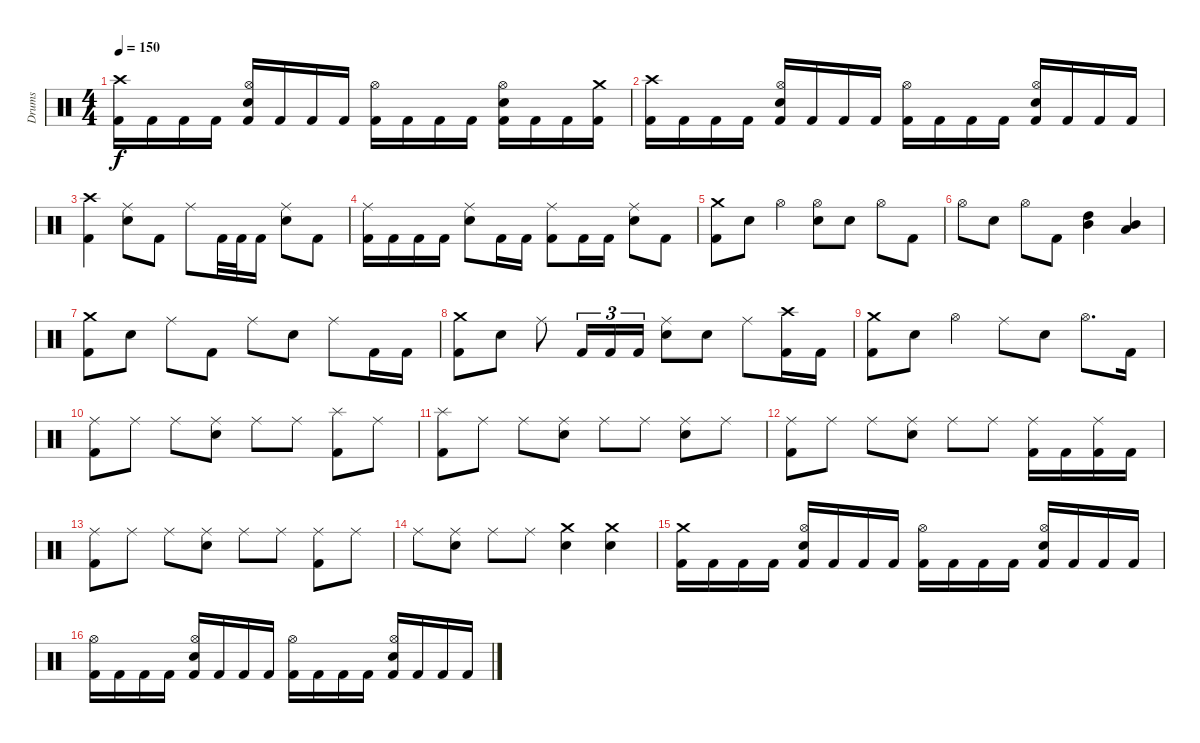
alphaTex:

\track ("Drums" "Drums") {instrument percussion}
\staff {score}
\articulation defaults
\ts (4 4)
\tempo 150
\clef neutral
\ks c
("Crash high (hit)" "Kick (hit) 2").16{dy f} "Kick (hit) 2".16 "Kick (hit) 2".16 "Kick (hit) 2".16 ("Hi-Hat (open)" "Snare (hit) 2" "Kick (hit) 2").16 "Kick (hit) 2".16 "Kick (hit) 2".16 "Kick (hit) 2".16 ("Hi-Hat (open)" "Kick (hit) 2").16 "Kick (hit) 2".16 "Kick (hit) 2".16 "Kick (hit) 2".16 ("Hi-Hat (open)" "Snare (hit) 2" "Kick (hit) 2").16 "Kick (hit) 2".16 "Kick (hit) 2".16 ("Crash medium (hit)" "Kick (hit) 2").16 |
("Crash high (hit)" "Kick (hit) 2").16 "Kick (hit) 2".16 "Kick (hit) 2".16 "Kick (hit) 2".16 ("Hi-Hat (open)" "Snare (hit) 2" "Kick (hit) 2").16 "Kick (hit) 2".16 "Kick (hit) 2".16 "Kick (hit) 2".16 ("Hi-Hat (open)" "Kick (hit) 2").16 "Kick (hit) 2".16 "Kick (hit) 2".16 "Kick (hit) 2".16 ("Hi-Hat (open)" "Snare (hit) 2" "Kick (hit) 2").16 "Kick (hit) 2".16 "Kick (hit) 2".16 "Kick (hit) 2".16 |
("Crash high (hit)" "Kick (hit) 2").4 ("Ride (middle)" "Snare (hit) 2").8 "Kick (hit) 2".8 "Ride (middle)".8 "Kick (hit) 2".32 "Kick (hit) 2".32 "Kick (hit) 2".16 ("Ride (middle)" "Snare (hit) 2").8 "Kick (hit) 2".8 |
("Ride (middle)" "Kick (hit) 2").16 "Kick (hit) 2".16 "Kick (hit) 2".16 "Kick (hit) 2".16 ("Ride (middle)" "Snare (hit) 2").8 "Kick (hit) 2".16 "Kick (hit) 2".16 ("Ride (middle)" "Kick (hit) 2").8 "Kick (hit) 2".16 "Kick (hit) 2".16 ("Ride (middle)" "Snare (hit) 2").8 "Kick (hit) 2".8 |
("Crash medium (hit)" "Kick (hit) 2").8 "Snare (hit) 2".8 "Hi-Hat (open)".4 ("Hi-Hat (open)" "Snare (hit) 2").8 "Snare (hit) 2".8 "Hi-Hat (open)".8 "Kick (hit) 2".8 |
"Hi-Hat (open)".8 "Snare (hit) 2".8 "Hi-Hat (open)".8 "Kick (hit) 2".8 ("High Tom (hit)" "Mid Tom (hit)").4 ("Mid Tom (hit)" "Low Tom (hit)").4 |
("Crash medium (hit)" "Kick (hit) 2").8 "Snare (hit) 2".8 "Ride (middle)".8 "Kick (hit) 2".8 "Ride (middle)".8 "Snare (hit) 2".8 "Ride (middle)".8 "Kick (hit) 2".16 "Kick (hit) 2".16 |
("Crash medium (hit)" "Kick (hit) 2").8 "Snare (hit) 2".8 "Ride (middle)".8 "Kick (hit) 2".16{tu (3 2)} "Kick (hit) 2".16{tu (3 2)} "Kick (hit) 2".16{tu (3 2)} ("Ride (middle)" "Snare (hit) 2").8 "Snare (hit) 2".8 "Ride (middle)".8 ("Crash high (hit)" "Kick (hit) 2").16 "Kick (hit) 2".16 |
("Crash medium (hit)" "Kick (hit) 2").8 "Snare (hit) 2".8 "Hi-Hat (open)".4 "Ride (middle)".8 "Snare (hit) 2".8 "Hi-Hat (open)".8{d} "Kick (hit) 2".16 |
("Ride (middle)" "Kick (hit) 2").8 "Ride (middle)".8 "Ride (middle)".8 ("Ride (middle)" "Snare (hit) 2").8 "Ride (middle)".8 "Ride (middle)".8 ("Splash (hit)" "Kick (hit) 2").8 "Ride (middle)".8 |
("Splash (hit)" "Kick (hit) 2").8 "Ride (middle)".8 "Ride (middle)".8 ("Ride (middle)" "Snare (hit) 2").8 "Ride (middle)".8 "Ride (middle)".8 ("Ride (middle)" "Snare (hit) 2").8 "Ride (middle)".8 |
("Ride (middle)" "Kick (hit) 2").8 "Ride (middle)".8 "Ride (middle)".8 ("Ride (middle)" "Snare (hit) 2").8 "Ride (middle)".8 "Ride (middle)".8 ("Ride (middle)" "Kick (hit) 2").16 "Kick (hit) 2".16 ("Ride (middle)" "Kick (hit) 2").16 "Kick (hit) 2".16 |
("Ride (middle)" "Kick (hit) 2").8 "Ride (middle)".8 "Ride (middle)".8 ("Ride (middle)" "Snare (hit) 2").8 "Ride (middle)".8 "Ride (middle)".8 ("Ride (middle)" "Kick (hit) 2").8 "Ride (middle)".8 |
"Ride (middle)".8 ("Ride (middle)" "Snare (hit) 2").8 "Ride (middle)".8 "Ride (middle)".8 ("Crash medium (hit)" "Snare (hit) 2").4 ("Crash medium (hit)" "Snare (hit) 2").4 |
("Crash medium (hit)" "Kick (hit) 2").16 "Kick (hit) 2".16 "Kick (hit) 2".16 "Kick (hit) 2".16 ("Hi-Hat (open)" "Snare (hit) 2" "Kick (hit) 2").16 "Kick (hit) 2".16 "Kick (hit) 2".16 "Kick (hit) 2".16 ("Hi-Hat (open)" "Kick (hit) 2").16 "Kick (hit) 2".16 "Kick (hit) 2".16 "Kick (hit) 2".16 ("Hi-Hat (open)" "Snare (hit) 2" "Kick (hit) 2").16 "Kick (hit) 2".16 "Kick (hit) 2".16 "Kick (hit) 2".16 |
("Hi-Hat (open)" "Kick (hit) 2").16 "Kick (hit) 2".16 "Kick (hit) 2".16 "Kick (hit) 2".16 ("Hi-Hat (open)" "Snare (hit) 2" "Kick (hit) 2").16 "Kick (hit) 2".16 "Kick (hit) 2".16 "Kick (hit) 2".16 ("Hi-Hat (open)" "Kick (hit) 2").16 "Kick (hit) 2".16 "Kick (hit) 2".16 "Kick (hit) 2".16 ("Hi-Hat (open)" "Snare (hit) 2" "Kick (hit) 2").16 "Kick (hit) 2".16 "Kick (hit) 2".16 "Kick (hit) 2".16
